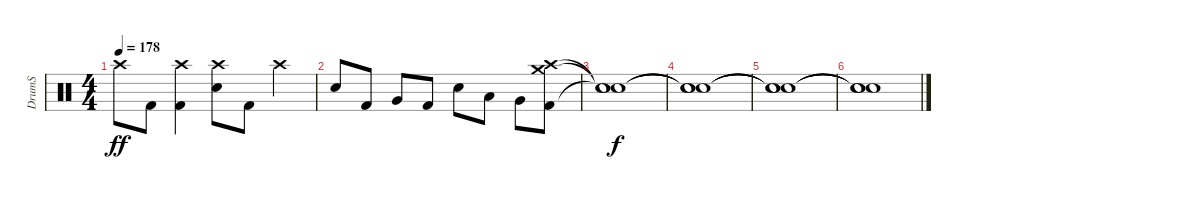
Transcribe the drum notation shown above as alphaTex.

\track ("DrumS" "DrumS") {instrument percussion}
\staff {score}
\articulation defaults
\ts (4 4)
\tempo 178
\clef neutral
\ks c "Crash high (hit)".8{dy ff} "Kick (hit) 2".8
("Crash high (hit)" "Kick (hit) 2").4 ("Crash high (hit)" "Electric Snare (hit)").8 "Kick (hit) 2".8 "Crash high (hit)".4 |
"Electric Snare (hit)".8 "Kick (hit) 2".8 "Very Low Tom (hit)".8 "Kick (hit) 2".8 "Electric Snare (hit)".8 "Low Tom (hit)".8 "Very Low Tom (hit)".8 ("Crash high (hit)" "Crash medium (hit)" "Kick (hit) 2").8 |
("Snare (hit)"{t} "Snare (hit)"{t} "Snare (hit)"{t}).1{dy f} |
("Snare (hit)"{t} "Snare (hit)"{t} "Snare (hit)"{t}).1 |
("Snare (hit)"{t} "Snare (hit)"{t} "Snare (hit)"{t}).1 |
("Snare (hit)"{t} "Snare (hit)"{t} "Snare (hit)"{t}).1
